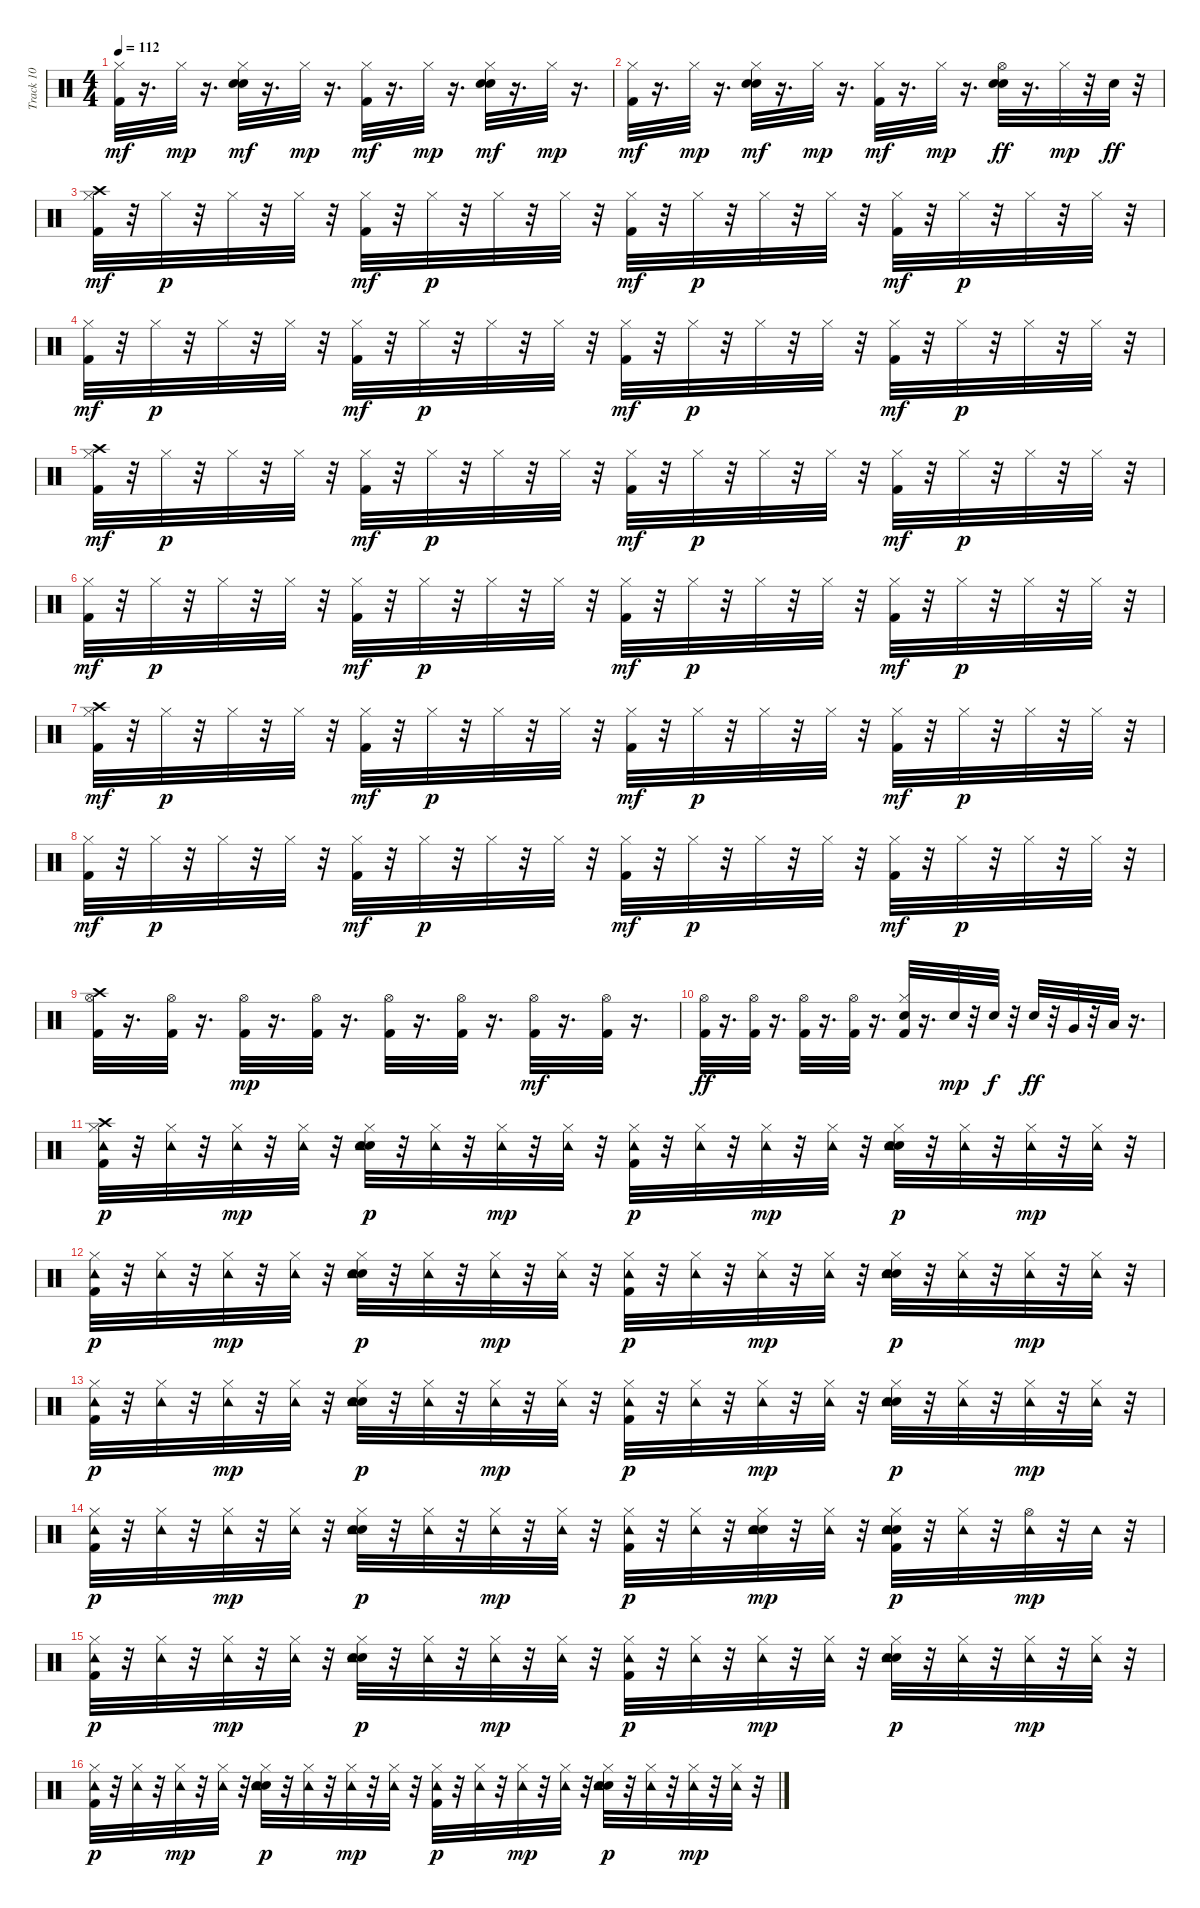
\track ("Track 10" "Track 10") {instrument percussion}
\staff {score}
\articulation defaults
\ts (4 4)
\tempo 112
\clef neutral
\ks c
("Kick (hit) 2" "Hi-Hat (closed)").32{dy mf} r.16{d} "Hi-Hat (closed)".32{dy mp} r.16{d} ("Hand Clap (hit)" "Electric Snare (hit)" "Hi-Hat (closed)").32{dy mf} r.16{d} "Hi-Hat (closed)".32{dy mp} r.16{d} ("Kick (hit) 2" "Hi-Hat (closed)").32{dy mf} r.16{d} "Hi-Hat (closed)".32{dy mp} r.16{d} ("Hand Clap (hit)" "Electric Snare (hit)" "Hi-Hat (closed)").32{dy mf} r.16{d} "Hi-Hat (closed)".32{dy mp} r.16{d} |
("Kick (hit) 2" "Hi-Hat (closed)").32{dy mf} r.16{d} "Hi-Hat (closed)".32{dy mp} r.16{d} ("Hand Clap (hit)" "Electric Snare (hit)" "Hi-Hat (closed)").32{dy mf} r.16{d} "Hi-Hat (closed)".32{dy mp} r.16{d} ("Kick (hit) 2" "Hi-Hat (closed)").32{dy mf} r.16{d} "Hi-Hat (closed)".32{dy mp} r.16{d} ("Hand Clap (hit)" "Electric Snare (hit)" "Hi-Hat (open)").32{dy ff} r.16{d} "Hi-Hat (closed)".32{dy mp} r.32 "Electric Snare (hit)".32{dy ff} r.32 |
("Kick (hit) 2" "Hi-Hat (closed)" "Crash high (hit)").32{dy mf} r.32 "Hi-Hat (closed)".32{dy p} r.32 "Hi-Hat (closed)".32 r.32 "Hi-Hat (closed)".32 r.32 ("Kick (hit) 2" "Hi-Hat (closed)").32{dy mf} r.32 "Hi-Hat (closed)".32{dy p} r.32 "Hi-Hat (closed)".32 r.32 "Hi-Hat (closed)".32 r.32 ("Kick (hit) 2" "Hi-Hat (closed)").32{dy mf} r.32 "Hi-Hat (closed)".32{dy p} r.32 "Hi-Hat (closed)".32 r.32 "Hi-Hat (closed)".32 r.32 ("Kick (hit) 2" "Hi-Hat (closed)").32{dy mf} r.32 "Hi-Hat (closed)".32{dy p} r.32 "Hi-Hat (closed)".32 r.32 "Hi-Hat (closed)".32 r.32 |
("Kick (hit) 2" "Hi-Hat (closed)").32{dy mf} r.32 "Hi-Hat (closed)".32{dy p} r.32 "Hi-Hat (closed)".32 r.32 "Hi-Hat (closed)".32 r.32 ("Kick (hit) 2" "Hi-Hat (closed)").32{dy mf} r.32 "Hi-Hat (closed)".32{dy p} r.32 "Hi-Hat (closed)".32 r.32 "Hi-Hat (closed)".32 r.32 ("Kick (hit) 2" "Hi-Hat (closed)").32{dy mf} r.32 "Hi-Hat (closed)".32{dy p} r.32 "Hi-Hat (closed)".32 r.32 "Hi-Hat (closed)".32 r.32 ("Kick (hit) 2" "Hi-Hat (closed)").32{dy mf} r.32 "Hi-Hat (closed)".32{dy p} r.32 "Hi-Hat (closed)".32 r.32 "Hi-Hat (closed)".32 r.32 |
("Kick (hit) 2" "Hi-Hat (closed)" "Crash high (hit)").32{dy mf} r.32 "Hi-Hat (closed)".32{dy p} r.32 "Hi-Hat (closed)".32 r.32 "Hi-Hat (closed)".32 r.32 ("Kick (hit) 2" "Hi-Hat (closed)").32{dy mf} r.32 "Hi-Hat (closed)".32{dy p} r.32 "Hi-Hat (closed)".32 r.32 "Hi-Hat (closed)".32 r.32 ("Kick (hit) 2" "Hi-Hat (closed)").32{dy mf} r.32 "Hi-Hat (closed)".32{dy p} r.32 "Hi-Hat (closed)".32 r.32 "Hi-Hat (closed)".32 r.32 ("Kick (hit) 2" "Hi-Hat (closed)").32{dy mf} r.32 "Hi-Hat (closed)".32{dy p} r.32 "Hi-Hat (closed)".32 r.32 "Hi-Hat (closed)".32 r.32 |
("Kick (hit) 2" "Hi-Hat (closed)").32{dy mf} r.32 "Hi-Hat (closed)".32{dy p} r.32 "Hi-Hat (closed)".32 r.32 "Hi-Hat (closed)".32 r.32 ("Kick (hit) 2" "Hi-Hat (closed)").32{dy mf} r.32 "Hi-Hat (closed)".32{dy p} r.32 "Hi-Hat (closed)".32 r.32 "Hi-Hat (closed)".32 r.32 ("Kick (hit) 2" "Hi-Hat (closed)").32{dy mf} r.32 "Hi-Hat (closed)".32{dy p} r.32 "Hi-Hat (closed)".32 r.32 "Hi-Hat (closed)".32 r.32 ("Kick (hit) 2" "Hi-Hat (closed)").32{dy mf} r.32 "Hi-Hat (closed)".32{dy p} r.32 "Hi-Hat (closed)".32 r.32 "Hi-Hat (closed)".32 r.32 |
("Kick (hit) 2" "Hi-Hat (closed)" "Crash high (hit)").32{dy mf} r.32 "Hi-Hat (closed)".32{dy p} r.32 "Hi-Hat (closed)".32 r.32 "Hi-Hat (closed)".32 r.32 ("Kick (hit) 2" "Hi-Hat (closed)").32{dy mf} r.32 "Hi-Hat (closed)".32{dy p} r.32 "Hi-Hat (closed)".32 r.32 "Hi-Hat (closed)".32 r.32 ("Kick (hit) 2" "Hi-Hat (closed)").32{dy mf} r.32 "Hi-Hat (closed)".32{dy p} r.32 "Hi-Hat (closed)".32 r.32 "Hi-Hat (closed)".32 r.32 ("Kick (hit) 2" "Hi-Hat (closed)").32{dy mf} r.32 "Hi-Hat (closed)".32{dy p} r.32 "Hi-Hat (closed)".32 r.32 "Hi-Hat (closed)".32 r.32 |
("Kick (hit) 2" "Hi-Hat (closed)").32{dy mf} r.32 "Hi-Hat (closed)".32{dy p} r.32 "Hi-Hat (closed)".32 r.32 "Hi-Hat (closed)".32 r.32 ("Kick (hit) 2" "Hi-Hat (closed)").32{dy mf} r.32 "Hi-Hat (closed)".32{dy p} r.32 "Hi-Hat (closed)".32 r.32 "Hi-Hat (closed)".32 r.32 ("Kick (hit) 2" "Hi-Hat (closed)").32{dy mf} r.32 "Hi-Hat (closed)".32{dy p} r.32 "Hi-Hat (closed)".32 r.32 "Hi-Hat (closed)".32 r.32 ("Kick (hit) 2" "Hi-Hat (closed)").32{dy mf} r.32 "Hi-Hat (closed)".32{dy p} r.32 "Hi-Hat (closed)".32 r.32 "Hi-Hat (closed)".32 r.32 |
("Kick (hit) 2" "Hi-Hat (open)" "Crash high (hit)").32 r.16{d} ("Kick (hit) 2" "Hi-Hat (open)").32 r.16{d} ("Kick (hit) 2" "Hi-Hat (open)").32{dy mp} r.16{d} ("Kick (hit) 2" "Hi-Hat (open)").32 r.16{d} ("Kick (hit) 2" "Hi-Hat (open)").32 r.16{d} ("Kick (hit) 2" "Hi-Hat (open)").32 r.16{d} ("Kick (hit) 2" "Hi-Hat (open)").32{dy mf} r.16{d} ("Kick (hit) 2" "Hi-Hat (open)").32 r.16{d} |
("Kick (hit) 2" "Hi-Hat (open)").32{dy ff} r.16{d} ("Kick (hit) 2" "Hi-Hat (open)").32 r.16{d} ("Kick (hit) 2" "Hi-Hat (open)").32 r.16{d} ("Kick (hit) 2" "Hi-Hat (open)").32 r.16{d} ("Kick (hit) 2" "Electric Snare (hit)" "Hi-Hat (closed)").32 r.16{d} "Electric Snare (hit)".32{dy mp} r.32 "Electric Snare (hit)".32{dy f} r.32 "Electric Snare (hit)".32{dy ff} r.32 "Very Low Tom (hit)".32 r.32 "Low Floor Tom (hit)".32 r.16{d} |
("Kick (hit) 2" "Hi-Hat (closed)" "Crash high (hit)" "Tambourine (hit)").32{dy p} r.32 ("Hi-Hat (closed)" "Tambourine (hit)").32 r.32 ("Hi-Hat (closed)" "Tambourine (hit)").32{dy mp} r.32 ("Hi-Hat (closed)" "Tambourine (hit)").32 r.32 ("Hand Clap (hit)" "Electric Snare (hit)" "Hi-Hat (closed)" "Tambourine (hit)").32{dy p} r.32 ("Hi-Hat (closed)" "Tambourine (hit)").32 r.32 ("Hi-Hat (closed)" "Tambourine (hit)").32{dy mp} r.32 ("Hi-Hat (closed)" "Tambourine (hit)").32 r.32 ("Kick (hit) 2" "Hi-Hat (closed)" "Tambourine (hit)").32{dy p} r.32 ("Hi-Hat (closed)" "Tambourine (hit)").32 r.32 ("Hi-Hat (closed)" "Tambourine (hit)").32{dy mp} r.32 ("Hi-Hat (closed)" "Tambourine (hit)").32 r.32 ("Hand Clap (hit)" "Electric Snare (hit)" "Hi-Hat (closed)" "Tambourine (hit)").32{dy p} r.32 ("Hi-Hat (closed)" "Tambourine (hit)").32 r.32 ("Hi-Hat (closed)" "Tambourine (hit)").32{dy mp} r.32 ("Hi-Hat (closed)" "Tambourine (hit)").32 r.32 |
("Kick (hit) 2" "Hi-Hat (closed)" "Tambourine (hit)").32{dy p} r.32 ("Hi-Hat (closed)" "Tambourine (hit)").32 r.32 ("Hi-Hat (closed)" "Tambourine (hit)").32{dy mp} r.32 ("Hi-Hat (closed)" "Tambourine (hit)").32 r.32 ("Hand Clap (hit)" "Electric Snare (hit)" "Hi-Hat (closed)" "Tambourine (hit)").32{dy p} r.32 ("Hi-Hat (closed)" "Tambourine (hit)").32 r.32 ("Hi-Hat (closed)" "Tambourine (hit)").32{dy mp} r.32 ("Hi-Hat (closed)" "Tambourine (hit)").32 r.32 ("Kick (hit) 2" "Hi-Hat (closed)" "Tambourine (hit)").32{dy p} r.32 ("Hi-Hat (closed)" "Tambourine (hit)").32 r.32 ("Hi-Hat (closed)" "Tambourine (hit)").32{dy mp} r.32 ("Hi-Hat (closed)" "Tambourine (hit)").32 r.32 ("Hand Clap (hit)" "Electric Snare (hit)" "Hi-Hat (closed)" "Tambourine (hit)").32{dy p} r.32 ("Hi-Hat (closed)" "Tambourine (hit)").32 r.32 ("Hi-Hat (closed)" "Tambourine (hit)").32{dy mp} r.32 ("Hi-Hat (closed)" "Tambourine (hit)").32 r.32 |
("Kick (hit) 2" "Hi-Hat (closed)" "Tambourine (hit)").32{dy p} r.32 ("Hi-Hat (closed)" "Tambourine (hit)").32 r.32 ("Hi-Hat (closed)" "Tambourine (hit)").32{dy mp} r.32 ("Hi-Hat (closed)" "Tambourine (hit)").32 r.32 ("Hand Clap (hit)" "Electric Snare (hit)" "Hi-Hat (closed)" "Tambourine (hit)").32{dy p} r.32 ("Hi-Hat (closed)" "Tambourine (hit)").32 r.32 ("Hi-Hat (closed)" "Tambourine (hit)").32{dy mp} r.32 ("Hi-Hat (closed)" "Tambourine (hit)").32 r.32 ("Kick (hit) 2" "Hi-Hat (closed)" "Tambourine (hit)").32{dy p} r.32 ("Hi-Hat (closed)" "Tambourine (hit)").32 r.32 ("Hi-Hat (closed)" "Tambourine (hit)").32{dy mp} r.32 ("Hi-Hat (closed)" "Tambourine (hit)").32 r.32 ("Hand Clap (hit)" "Electric Snare (hit)" "Hi-Hat (closed)" "Tambourine (hit)").32{dy p} r.32 ("Hi-Hat (closed)" "Tambourine (hit)").32 r.32 ("Hi-Hat (closed)" "Tambourine (hit)").32{dy mp} r.32 ("Hi-Hat (closed)" "Tambourine (hit)").32 r.32 |
("Kick (hit) 2" "Hi-Hat (closed)" "Tambourine (hit)").32{dy p} r.32 ("Hi-Hat (closed)" "Tambourine (hit)").32 r.32 ("Hi-Hat (closed)" "Tambourine (hit)").32{dy mp} r.32 ("Hi-Hat (closed)" "Tambourine (hit)").32 r.32 ("Hand Clap (hit)" "Electric Snare (hit)" "Hi-Hat (closed)" "Tambourine (hit)").32{dy p} r.32 ("Hi-Hat (closed)" "Tambourine (hit)").32 r.32 ("Hi-Hat (closed)" "Tambourine (hit)").32{dy mp} r.32 ("Hi-Hat (closed)" "Tambourine (hit)").32 r.32 ("Kick (hit) 2" "Hi-Hat (closed)" "Tambourine (hit)").32{dy p} r.32 ("Hi-Hat (closed)" "Tambourine (hit)").32 r.32 ("Hand Clap (hit)" "Electric Snare (hit)" "Hi-Hat (closed)" "Tambourine (hit)").32{dy mp} r.32 ("Hi-Hat (closed)" "Tambourine (hit)").32 r.32 ("Kick (hit) 2" "Hand Clap (hit)" "Electric Snare (hit)" "Hi-Hat (closed)" "Tambourine (hit)").32{dy p} r.32 ("Hi-Hat (closed)" "Tambourine (hit)").32 r.32 ("Hi-Hat (open)" "Tambourine (hit)").32{dy mp} r.32 "Tambourine (hit)".32 r.32 |
("Kick (hit) 2" "Hi-Hat (closed)" "Tambourine (hit)").32{dy p} r.32 ("Hi-Hat (closed)" "Tambourine (hit)").32 r.32 ("Hi-Hat (closed)" "Tambourine (hit)").32{dy mp} r.32 ("Hi-Hat (closed)" "Tambourine (hit)").32 r.32 ("Hand Clap (hit)" "Electric Snare (hit)" "Hi-Hat (closed)" "Tambourine (hit)").32{dy p} r.32 ("Hi-Hat (closed)" "Tambourine (hit)").32 r.32 ("Hi-Hat (closed)" "Tambourine (hit)").32{dy mp} r.32 ("Hi-Hat (closed)" "Tambourine (hit)").32 r.32 ("Kick (hit) 2" "Hi-Hat (closed)" "Tambourine (hit)").32{dy p} r.32 ("Hi-Hat (closed)" "Tambourine (hit)").32 r.32 ("Hi-Hat (closed)" "Tambourine (hit)").32{dy mp} r.32 ("Hi-Hat (closed)" "Tambourine (hit)").32 r.32 ("Hand Clap (hit)" "Electric Snare (hit)" "Hi-Hat (closed)" "Tambourine (hit)").32{dy p} r.32 ("Hi-Hat (closed)" "Tambourine (hit)").32 r.32 ("Hi-Hat (closed)" "Tambourine (hit)").32{dy mp} r.32 ("Hi-Hat (closed)" "Tambourine (hit)").32 r.32 |
("Kick (hit) 2" "Hi-Hat (closed)" "Tambourine (hit)").32{dy p} r.32 ("Hi-Hat (closed)" "Tambourine (hit)").32 r.32 ("Hi-Hat (closed)" "Tambourine (hit)").32{dy mp} r.32 ("Hi-Hat (closed)" "Tambourine (hit)").32 r.32 ("Hand Clap (hit)" "Electric Snare (hit)" "Hi-Hat (closed)" "Tambourine (hit)").32{dy p} r.32 ("Hi-Hat (closed)" "Tambourine (hit)").32 r.32 ("Hi-Hat (closed)" "Tambourine (hit)").32{dy mp} r.32 ("Hi-Hat (closed)" "Tambourine (hit)").32 r.32 ("Kick (hit) 2" "Hi-Hat (closed)" "Tambourine (hit)").32{dy p} r.32 ("Hi-Hat (closed)" "Tambourine (hit)").32 r.32 ("Hi-Hat (closed)" "Tambourine (hit)").32{dy mp} r.32 ("Hi-Hat (closed)" "Tambourine (hit)").32 r.32 ("Hand Clap (hit)" "Electric Snare (hit)" "Hi-Hat (closed)" "Tambourine (hit)").32{dy p} r.32 ("Hi-Hat (closed)" "Tambourine (hit)").32 r.32 ("Hi-Hat (closed)" "Tambourine (hit)").32{dy mp} r.32 ("Hi-Hat (closed)" "Tambourine (hit)").32 r.32
